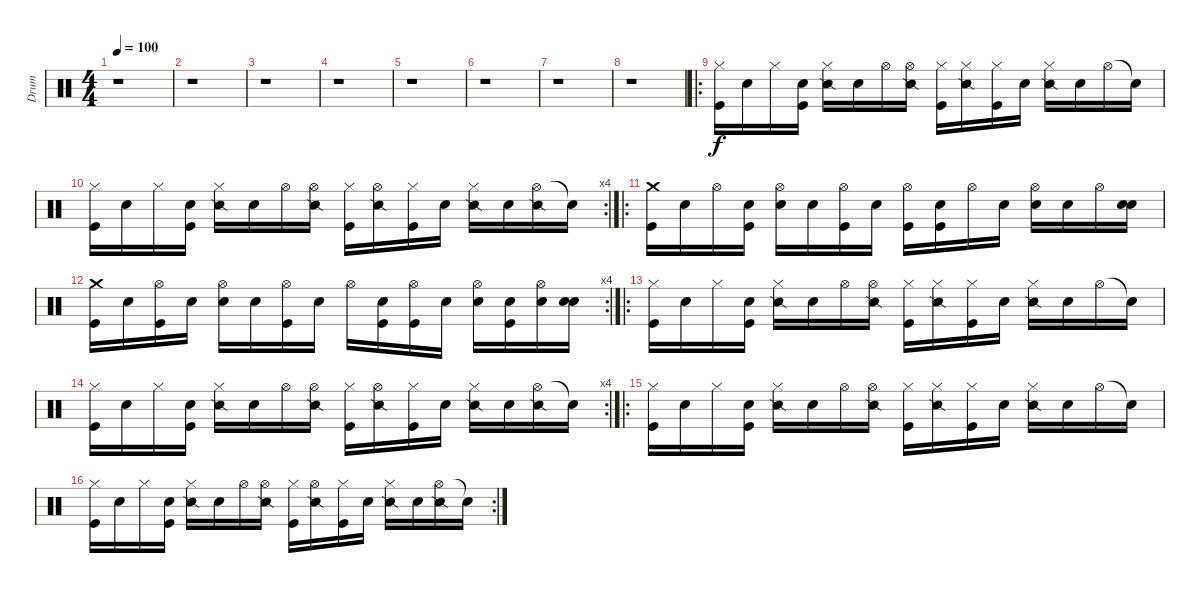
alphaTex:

\track ("Drum" "Drum") {instrument percussion}
\staff {score}
\articulation defaults
\ts (4 4)
\tempo 100
\clef neutral
\ks c
r.1{dy f} |
r.1 |
r.1 |
r.1 |
r.1 |
r.1 |
r.1 |
r.1 |
\ro
("Hi-Hat (closed)" "Kick (hit)").16 "Snare (hit)".16 "Hi-Hat (closed)".16 ("Snare (hit)" "Kick (hit)").16 ("Hi-Hat (closed)" "Snare (side stick) 2").16 "Snare (hit)".16 "Hi-Hat (open)".16 ("Hi-Hat (open)" "Snare (side stick) 2").16 ("Hi-Hat (closed)" "Kick (hit)").16 ("Hi-Hat (closed)" "Snare (side stick) 2").16 ("Hi-Hat (closed)" "Kick (hit)").16 "Snare (hit)".16 ("Hi-Hat (closed)" "Snare (side stick) 2").16 "Snare (hit)".16 "Hi-Hat (open)".16 "Snare (hit)"{t}.16 |
\rc 4
("Hi-Hat (closed)" "Kick (hit)").16 "Snare (hit)".16 "Hi-Hat (closed)".16 ("Snare (hit)" "Kick (hit)").16 ("Hi-Hat (closed)" "Snare (side stick) 2").16 "Snare (hit)".16 "Hi-Hat (open)".16 ("Hi-Hat (open)" "Snare (side stick) 2").16 ("Hi-Hat (closed)" "Kick (hit)").16 ("Hi-Hat (open)" "Snare (side stick) 2").16 ("Hi-Hat (closed)" "Kick (hit)").16 "Snare (hit)".16 ("Hi-Hat (closed)" "Snare (side stick) 2").16 "Snare (hit)".16 ("Hi-Hat (open)" "Snare (side stick) 2").16 "Snare (hit)"{t}.16 |
\ro
("Crash medium (hit)" "Kick (hit)").16 "Snare (hit)".16 "Hi-Hat (open)".16 ("Snare (hit)" "Kick (hit)").16 ("Hi-Hat (open)" "Snare (hit) 2").16 "Snare (hit)".16 ("Hi-Hat (open)" "Kick (hit)").16 "Snare (hit)".16 ("Hi-Hat (open)" "Kick (hit)").16 ("Snare (hit)" "Kick (hit)").16 "Hi-Hat (open)".16 "Snare (hit)".16 ("Hi-Hat (open)" "Snare (hit) 2").16 "Snare (hit)".16 "Hi-Hat (open)".16 ("Snare (hit)" "Snare (hit) 2").16 |
\rc 4
("Crash medium (hit)" "Kick (hit)").16 "Snare (hit)".16 ("Hi-Hat (open)" "Kick (hit)").16 "Snare (hit)".16 ("Hi-Hat (open)" "Snare (hit) 2").16 "Snare (hit)".16 ("Hi-Hat (open)" "Kick (hit)").16 "Snare (hit)".16 "Hi-Hat (open)".16 ("Snare (hit)" "Kick (hit)").16 ("Hi-Hat (open)" "Kick (hit)").16 "Snare (hit)".16 ("Hi-Hat (open)" "Snare (hit) 2").16 ("Snare (hit)" "Kick (hit)").16 ("Hi-Hat (open)" "Snare (hit) 2").16 ("Snare (hit)" "Snare (hit) 2").16 |
\ro
("Hi-Hat (closed)" "Kick (hit)").16 "Snare (hit)".16 "Hi-Hat (closed)".16 ("Snare (hit)" "Kick (hit)").16 ("Hi-Hat (closed)" "Snare (side stick) 2").16 "Snare (hit)".16 "Hi-Hat (open)".16 ("Hi-Hat (open)" "Snare (side stick) 2").16 ("Hi-Hat (closed)" "Kick (hit)").16 ("Hi-Hat (closed)" "Snare (side stick) 2").16 ("Hi-Hat (closed)" "Kick (hit)").16 "Snare (hit)".16 ("Hi-Hat (closed)" "Snare (side stick) 2").16 "Snare (hit)".16 "Hi-Hat (open)".16 "Snare (hit)"{t}.16 |
\rc 4
("Hi-Hat (closed)" "Kick (hit)").16 "Snare (hit)".16 "Hi-Hat (closed)".16 ("Snare (hit)" "Kick (hit)").16 ("Hi-Hat (closed)" "Snare (side stick) 2").16 "Snare (hit)".16 "Hi-Hat (open)".16 ("Hi-Hat (open)" "Snare (side stick) 2").16 ("Hi-Hat (closed)" "Kick (hit)").16 ("Hi-Hat (open)" "Snare (side stick) 2").16 ("Hi-Hat (closed)" "Kick (hit)").16 "Snare (hit)".16 ("Hi-Hat (closed)" "Snare (side stick) 2").16 "Snare (hit)".16 ("Hi-Hat (open)" "Snare (side stick) 2").16 "Snare (hit)"{t}.16 |
\ro
("Hi-Hat (closed)" "Kick (hit)").16 "Snare (hit)".16 "Hi-Hat (closed)".16 ("Snare (hit)" "Kick (hit)").16 ("Hi-Hat (closed)" "Snare (side stick) 2").16 "Snare (hit)".16 "Hi-Hat (open)".16 ("Hi-Hat (open)" "Snare (side stick) 2").16 ("Hi-Hat (closed)" "Kick (hit)").16 ("Hi-Hat (closed)" "Snare (side stick) 2").16 ("Hi-Hat (closed)" "Kick (hit)").16 "Snare (hit)".16 ("Hi-Hat (closed)" "Snare (side stick) 2").16 "Snare (hit)".16 "Hi-Hat (open)".16 "Snare (hit)"{t}.16 |
\rc 2
("Hi-Hat (closed)" "Kick (hit)").16 "Snare (hit)".16 "Hi-Hat (closed)".16 ("Snare (hit)" "Kick (hit)").16 ("Hi-Hat (closed)" "Snare (side stick) 2").16 "Snare (hit)".16 "Hi-Hat (open)".16 ("Hi-Hat (open)" "Snare (side stick) 2").16 ("Hi-Hat (closed)" "Kick (hit)").16 ("Hi-Hat (open)" "Snare (side stick) 2").16 ("Hi-Hat (closed)" "Kick (hit)").16 "Snare (hit)".16 ("Hi-Hat (closed)" "Snare (side stick) 2").16 "Snare (hit)".16 ("Hi-Hat (open)" "Snare (side stick) 2").16 "Snare (hit)"{t}.16
